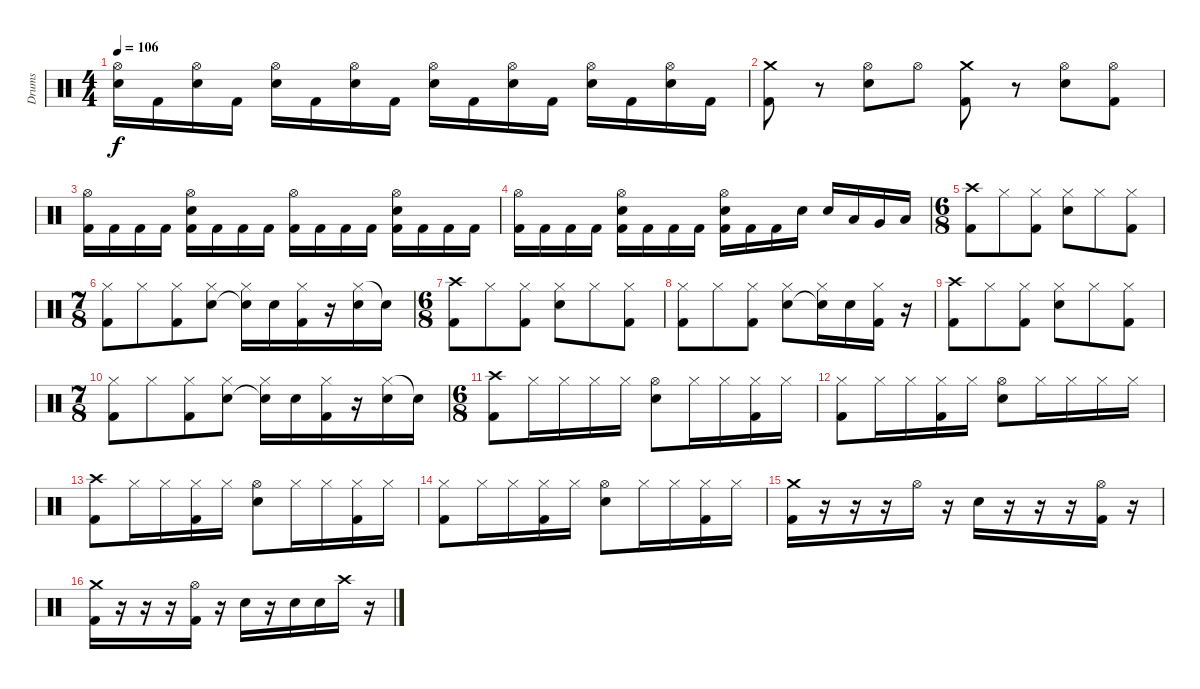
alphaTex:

\track ("Drums" "Drums") {instrument percussion}
\staff {score}
\articulation defaults
\ts (4 4)
\tempo 106
\clef neutral
\ks c
("Hi-Hat (open)" "Electric Snare (hit)").16{dy f} "Kick (hit) 2".16 ("Hi-Hat (open)" "Electric Snare (hit)").16 "Kick (hit) 2".16 ("Hi-Hat (open)" "Electric Snare (hit)").16 "Kick (hit) 2".16 ("Hi-Hat (open)" "Electric Snare (hit)").16 "Kick (hit) 2".16 ("Hi-Hat (open)" "Electric Snare (hit)").16 "Kick (hit) 2".16 ("Hi-Hat (open)" "Electric Snare (hit)").16 "Kick (hit) 2".16 ("Hi-Hat (open)" "Electric Snare (hit)").16 "Kick (hit) 2".16 ("Hi-Hat (open)" "Electric Snare (hit)").16 "Kick (hit) 2".16 |
("Crash medium (hit)" "Kick (hit) 2").8 r.8 ("Hi-Hat (open)" "Electric Snare (hit)").8 "Hi-Hat (open)".8 ("Crash medium (hit)" "Kick (hit) 2").8 r.8 ("Hi-Hat (open)" "Electric Snare (hit)").8 ("Hi-Hat (open)" "Kick (hit) 2").8 |
\ks aminor
("Hi-Hat (open)" "Kick (hit) 2").16 "Kick (hit) 2".16 "Kick (hit) 2".16 "Kick (hit) 2".16 ("Hi-Hat (open)" "Electric Snare (hit)" "Kick (hit) 2").16 "Kick (hit) 2".16 "Kick (hit) 2".16 "Kick (hit) 2".16 ("Hi-Hat (open)" "Kick (hit) 2").16 "Kick (hit) 2".16 "Kick (hit) 2".16 "Kick (hit) 2".16 ("Hi-Hat (open)" "Electric Snare (hit)" "Kick (hit) 2").16 "Kick (hit) 2".16 "Kick (hit) 2".16 "Kick (hit) 2".16 |
("Hi-Hat (open)" "Kick (hit) 2").16 "Kick (hit) 2".16 "Kick (hit) 2".16 "Kick (hit) 2".16 ("Hi-Hat (open)" "Electric Snare (hit)" "Kick (hit) 2").16 "Kick (hit) 2".16 "Kick (hit) 2".16 "Kick (hit) 2".16 ("Hi-Hat (open)" "Electric Snare (hit)" "Kick (hit) 2").16 "Kick (hit) 2".16 "Kick (hit) 2".16 "Electric Snare (hit)".16 "Electric Snare (hit)".16 "Low Tom (hit)".16 "Very Low Tom (hit)".16 "Low Floor Tom (hit)".16 |
\ts (6 8)
\section ("" "")
("Crash high (hit)" "Kick (hit) 2").8 "Hi-Hat (closed)".8 ("Hi-Hat (closed)" "Kick (hit) 2").8 ("Hi-Hat (closed)" "Electric Snare (hit)").8 "Hi-Hat (closed)".8 ("Hi-Hat (closed)" "Kick (hit) 2").8 |
\ts (7 8)
("Hi-Hat (closed)" "Kick (hit) 2").8 "Hi-Hat (closed)".8 ("Hi-Hat (closed)" "Kick (hit) 2").8 ("Hi-Hat (closed)" "Electric Snare (hit)").8 ("Hi-Hat (closed)" "Snare (hit)"{t}).16 "Electric Snare (hit)".16 ("Hi-Hat (closed)" "Kick (hit) 2").16 r.16 ("Hi-Hat (closed)" "Electric Snare (hit)").16 "Snare (hit)"{t}.16 |
\ts (6 8)
("Crash high (hit)" "Kick (hit) 2").8 "Hi-Hat (closed)".8 ("Hi-Hat (closed)" "Kick (hit) 2").8 ("Hi-Hat (closed)" "Electric Snare (hit)").8 "Hi-Hat (closed)".8 ("Hi-Hat (closed)" "Kick (hit) 2").8 |
("Hi-Hat (closed)" "Kick (hit) 2").8 "Hi-Hat (closed)".8 ("Hi-Hat (closed)" "Kick (hit) 2").8 ("Hi-Hat (closed)" "Electric Snare (hit)").8 ("Hi-Hat (closed)" "Snare (hit)"{t}).16 "Electric Snare (hit)".16 ("Hi-Hat (closed)" "Kick (hit) 2").16 r.16 |
("Crash high (hit)" "Kick (hit) 2").8 "Hi-Hat (closed)".8 ("Hi-Hat (closed)" "Kick (hit) 2").8 ("Hi-Hat (closed)" "Electric Snare (hit)").8 "Hi-Hat (closed)".8 ("Hi-Hat (closed)" "Kick (hit) 2").8 |
\ts (7 8)
("Hi-Hat (closed)" "Kick (hit) 2").8 "Hi-Hat (closed)".8 ("Hi-Hat (closed)" "Kick (hit) 2").8 ("Hi-Hat (closed)" "Electric Snare (hit)").8 ("Hi-Hat (closed)" "Snare (hit)"{t}).16 "Electric Snare (hit)".16 ("Hi-Hat (closed)" "Kick (hit) 2").16 r.16 ("Hi-Hat (closed)" "Electric Snare (hit)").16 "Snare (hit)"{t}.16 |
\ts (6 8)
("Crash high (hit)" "Kick (hit) 2").8 "Hi-Hat (closed)".16 "Hi-Hat (closed)".16 "Hi-Hat (closed)".16 "Hi-Hat (closed)".16 ("Hi-Hat (open)" "Electric Snare (hit)").8 "Hi-Hat (closed)".16 "Hi-Hat (closed)".16 ("Hi-Hat (closed)" "Kick (hit) 2").16 "Hi-Hat (closed)".16 |
("Hi-Hat (closed)" "Kick (hit) 2").8 "Hi-Hat (closed)".16 "Hi-Hat (closed)".16 ("Hi-Hat (closed)" "Kick (hit) 2").16 "Hi-Hat (closed)".16 ("Hi-Hat (open)" "Electric Snare (hit)").8 "Hi-Hat (closed)".16 "Hi-Hat (closed)".16 "Hi-Hat (closed)".16 "Hi-Hat (closed)".16 |
("Crash high (hit)" "Kick (hit) 2").8 "Hi-Hat (closed)".16 "Hi-Hat (closed)".16 ("Hi-Hat (closed)" "Kick (hit) 2").16 "Hi-Hat (closed)".16 ("Hi-Hat (open)" "Electric Snare (hit)").8 "Hi-Hat (closed)".16 "Hi-Hat (closed)".16 ("Hi-Hat (closed)" "Kick (hit) 2").16 "Hi-Hat (closed)".16 |
("Hi-Hat (closed)" "Kick (hit) 2").8 "Hi-Hat (closed)".16 "Hi-Hat (closed)".16 ("Hi-Hat (closed)" "Kick (hit) 2").16 "Hi-Hat (closed)".16 ("Hi-Hat (open)" "Electric Snare (hit)").8 "Hi-Hat (closed)".16 "Hi-Hat (closed)".16 ("Hi-Hat (closed)" "Kick (hit) 2").16 "Hi-Hat (closed)".16 |
\section ("" "")
("Crash medium (hit)" "Kick (hit) 2").16 r.16 r.16 r.16 "Hi-Hat (open)".16 r.16 "Electric Snare (hit)".16 r.16 r.16 r.16 ("Hi-Hat (open)" "Kick (hit) 2").16 r.16 |
("Crash medium (hit)" "Kick (hit) 2").16 r.16 r.16 r.16 ("Hi-Hat (open)" "Kick (hit) 2").16 r.16 "Electric Snare (hit)".16 r.16 "Electric Snare (hit)".16 "Electric Snare (hit)".16 "Crash high (hit)".16 r.16
